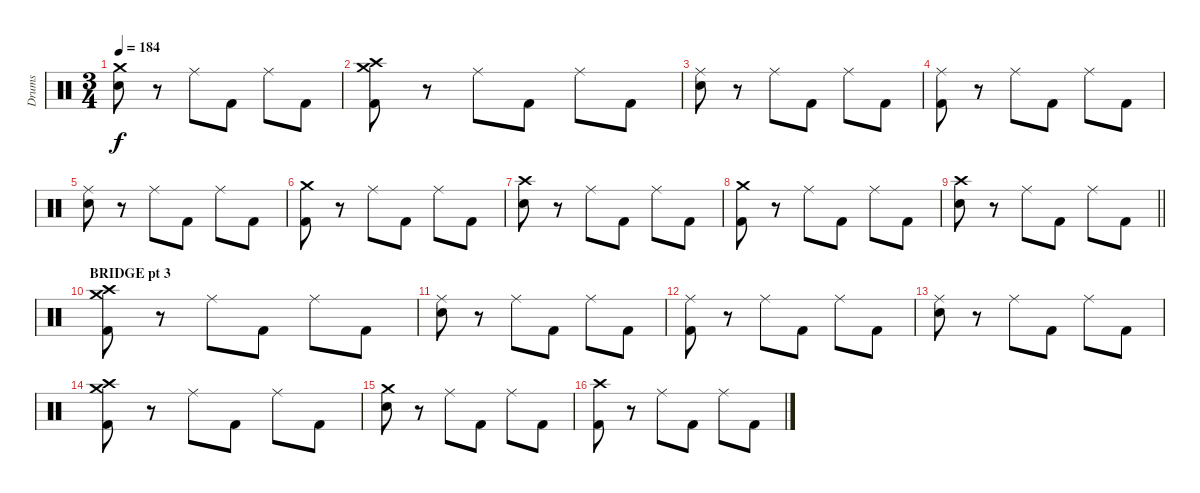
\track ("Drums" "Drums") {instrument percussion}
\staff {score}
\articulation defaults
\ts (3 4)
\tempo 184
\clef neutral
\ks c
("Crash medium (hit)" "Snare (hit) 2").8{dy f} r.8 "Ride (middle)".8 "Kick (hit) 2".8 "Ride (middle)".8 "Kick (hit) 2".8 |
("Crash medium (hit)" "Crash high (hit)" "Kick (hit) 2").8 r.8 "Ride (middle)".8 "Kick (hit) 2".8 "Ride (middle)".8 "Kick (hit) 2".8 |
("Ride (middle)" "Snare (hit) 2").8 r.8 "Ride (middle)".8 "Kick (hit) 2".8 "Ride (middle)".8 "Kick (hit) 2".8 |
("Ride (middle)" "Kick (hit) 2").8 r.8 "Ride (middle)".8 "Kick (hit) 2".8 "Ride (middle)".8 "Kick (hit) 2".8 |
("Ride (middle)" "Snare (hit) 2").8 r.8 "Ride (middle)".8 "Kick (hit) 2".8 "Ride (middle)".8 "Kick (hit) 2".8 |
("Crash medium (hit)" "Kick (hit) 2").8 r.8 "Ride (middle)".8 "Kick (hit) 2".8 "Ride (middle)".8 "Kick (hit) 2".8 |
("Crash high (hit)" "Snare (hit) 2").8 r.8 "Ride (middle)".8 "Kick (hit) 2".8 "Ride (middle)".8 "Kick (hit) 2".8 |
("Crash medium (hit)" "Kick (hit) 2").8 r.8 "Ride (middle)".8 "Kick (hit) 2".8 "Ride (middle)".8 "Kick (hit) 2".8 |
\barLineRight lightlight
("Crash high (hit)" "Snare (hit) 2").8 r.8 "Ride (middle)".8 "Kick (hit) 2".8 "Ride (middle)".8 "Kick (hit) 2".8 |
\section ("" "BRIDGE pt 3")
("Crash medium (hit)" "Crash high (hit)" "Kick (hit) 2").8 r.8 "Ride (middle)".8 "Kick (hit) 2".8 "Ride (middle)".8 "Kick (hit) 2".8 |
("Ride (middle)" "Snare (hit) 2").8 r.8 "Ride (middle)".8 "Kick (hit) 2".8 "Ride (middle)".8 "Kick (hit) 2".8 |
("Ride (middle)" "Kick (hit) 2").8 r.8 "Ride (middle)".8 "Kick (hit) 2".8 "Ride (middle)".8 "Kick (hit) 2".8 |
("Ride (middle)" "Snare (hit) 2").8 r.8 "Ride (middle)".8 "Kick (hit) 2".8 "Ride (middle)".8 "Kick (hit) 2".8 |
("Crash high (hit)" "Crash medium (hit)" "Kick (hit) 2").8 r.8 "Ride (middle)".8 "Kick (hit) 2".8 "Ride (middle)".8 "Kick (hit) 2".8 |
("Crash medium (hit)" "Snare (hit) 2").8 r.8 "Ride (middle)".8 "Kick (hit) 2".8 "Ride (middle)".8 "Kick (hit) 2".8 |
("Crash high (hit)" "Kick (hit) 2").8 r.8 "Ride (middle)".8 "Kick (hit) 2".8 "Ride (middle)".8 "Kick (hit) 2".8
